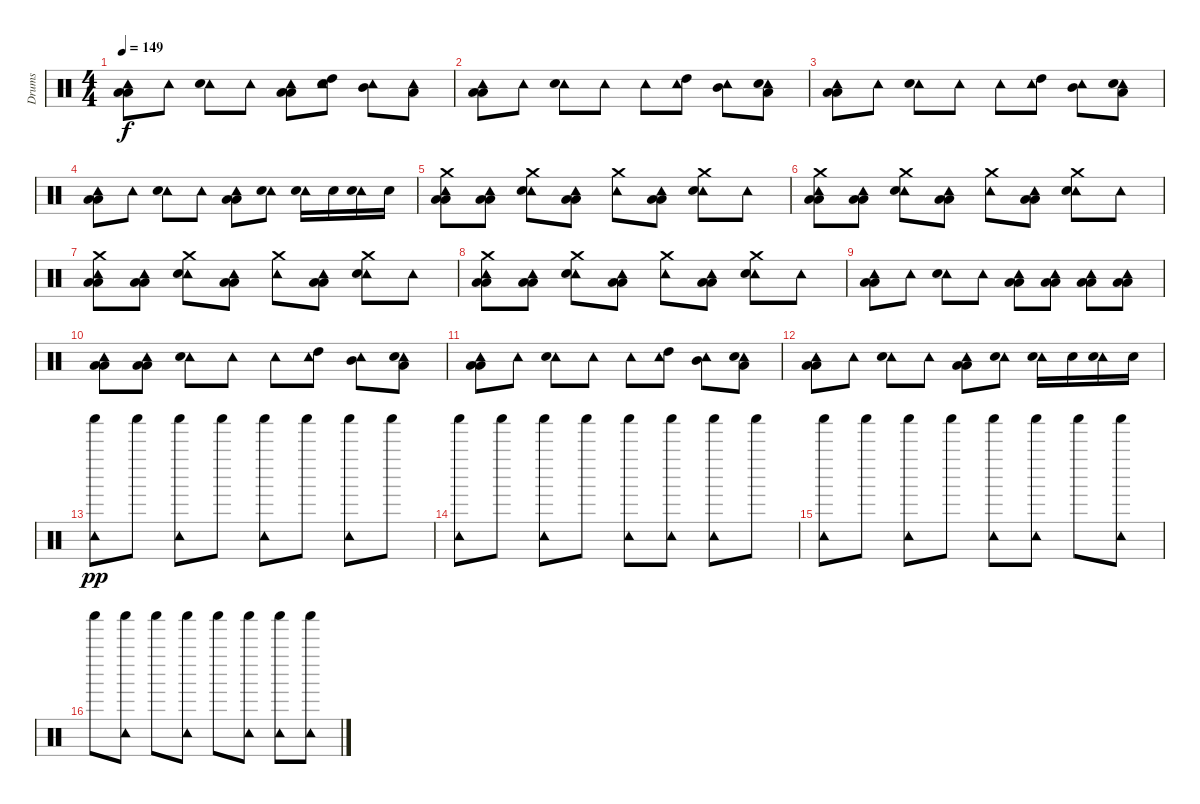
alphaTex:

\track ("Drums" "Drums") {instrument percussion}
\staff {score}
\articulation defaults
\ts (4 4)
\tempo 149
\clef neutral
\ks c
("Tambourine (hit)" "Low Floor Tom (hit)" "Low Floor Tom (hit)").8{dy f} "Tambourine (hit)".8 ("Tambourine (hit)" "Snare (hit) 2").8 "Tambourine (hit)".8 ("Tambourine (hit)" "Low Floor Tom (hit)" "Low Floor Tom (hit)").8 ("Tambourine (hit)" "Snare (hit) 2" "High Tom (hit)").8 ("Tambourine (hit)" "Mid Tom (hit)").8 ("Tambourine (hit)" "Low Tom (hit)").8 |
("Tambourine (hit)" "Low Floor Tom (hit)" "Low Floor Tom (hit)").8 "Tambourine (hit)".8 ("Tambourine (hit)" "Snare (hit) 2").8 "Tambourine (hit)".8 "Tambourine (hit)".8 ("Tambourine (hit)" "High Tom (hit)").8 ("Tambourine (hit)" "Mid Tom (hit)").8 ("Tambourine (hit)" "Snare (hit) 2" "Low Tom (hit)").8 |
("Tambourine (hit)" "Low Floor Tom (hit)" "Low Floor Tom (hit)").8 "Tambourine (hit)".8 ("Tambourine (hit)" "Snare (hit) 2").8 "Tambourine (hit)".8 "Tambourine (hit)".8 ("Tambourine (hit)" "High Tom (hit)").8 ("Tambourine (hit)" "Mid Tom (hit)").8 ("Tambourine (hit)" "Snare (hit) 2" "Low Tom (hit)").8 |
("Tambourine (hit)" "Low Floor Tom (hit)" "Low Floor Tom (hit)").8 "Tambourine (hit)".8 ("Tambourine (hit)" "Snare (hit) 2").8 "Tambourine (hit)".8 ("Tambourine (hit)" "Low Floor Tom (hit)" "Low Floor Tom (hit)").8 ("Tambourine (hit)" "Snare (hit) 2").8 ("Tambourine (hit)" "Snare (hit) 2").16 "Snare (hit) 2".16 ("Tambourine (hit)" "Snare (hit) 2").16 "Snare (hit) 2".16 |
("Crash medium (hit)" "Tambourine (hit)" "Low Floor Tom (hit)" "Low Floor Tom (hit)").8 ("Tambourine (hit)" "Low Floor Tom (hit)" "Low Floor Tom (hit)").8 ("Crash medium (hit)" "Tambourine (hit)" "Snare (hit) 2").8 ("Tambourine (hit)" "Low Floor Tom (hit)" "Low Floor Tom (hit)").8 ("Crash medium (hit)" "Tambourine (hit)").8 ("Tambourine (hit)" "Low Floor Tom (hit)" "Low Floor Tom (hit)").8 ("Crash medium (hit)" "Tambourine (hit)" "Snare (hit) 2").8 "Tambourine (hit)".8 |
("Crash medium (hit)" "Tambourine (hit)" "Low Floor Tom (hit)" "Low Floor Tom (hit)").8 ("Tambourine (hit)" "Low Floor Tom (hit)" "Low Floor Tom (hit)").8 ("Crash medium (hit)" "Tambourine (hit)" "Snare (hit) 2").8 ("Tambourine (hit)" "Low Floor Tom (hit)" "Low Floor Tom (hit)").8 ("Crash medium (hit)" "Tambourine (hit)").8 ("Tambourine (hit)" "Low Floor Tom (hit)" "Low Floor Tom (hit)").8 ("Crash medium (hit)" "Tambourine (hit)" "Snare (hit) 2").8 "Tambourine (hit)".8 |
("Crash medium (hit)" "Tambourine (hit)" "Low Floor Tom (hit)" "Low Floor Tom (hit)").8 ("Tambourine (hit)" "Low Floor Tom (hit)" "Low Floor Tom (hit)").8 ("Crash medium (hit)" "Tambourine (hit)" "Snare (hit) 2").8 ("Tambourine (hit)" "Low Floor Tom (hit)" "Low Floor Tom (hit)").8 ("Crash medium (hit)" "Tambourine (hit)").8 ("Tambourine (hit)" "Low Floor Tom (hit)" "Low Floor Tom (hit)").8 ("Crash medium (hit)" "Tambourine (hit)" "Snare (hit) 2").8 "Tambourine (hit)".8 |
("Crash medium (hit)" "Tambourine (hit)" "Low Floor Tom (hit)" "Low Floor Tom (hit)").8 ("Tambourine (hit)" "Low Floor Tom (hit)" "Low Floor Tom (hit)").8 ("Crash medium (hit)" "Tambourine (hit)" "Snare (hit) 2").8 ("Tambourine (hit)" "Low Floor Tom (hit)" "Low Floor Tom (hit)").8 ("Crash medium (hit)" "Tambourine (hit)").8 ("Tambourine (hit)" "Low Floor Tom (hit)" "Low Floor Tom (hit)").8 ("Crash medium (hit)" "Tambourine (hit)" "Snare (hit) 2").8 "Tambourine (hit)".8 |
("Tambourine (hit)" "Low Floor Tom (hit)" "Low Floor Tom (hit)").8 "Tambourine (hit)".8 ("Tambourine (hit)" "Snare (hit) 2").8 "Tambourine (hit)".8 ("Tambourine (hit)" "Low Floor Tom (hit)" "Low Floor Tom (hit)").8 ("Tambourine (hit)" "Low Floor Tom (hit)" "Low Floor Tom (hit)").8 ("Tambourine (hit)" "Low Floor Tom (hit)" "Low Floor Tom (hit)").8 ("Tambourine (hit)" "Low Floor Tom (hit)" "Low Floor Tom (hit)").8 |
("Tambourine (hit)" "Low Floor Tom (hit)" "Low Floor Tom (hit)").8 ("Tambourine (hit)" "Low Floor Tom (hit)" "Low Floor Tom (hit)").8 ("Tambourine (hit)" "Snare (hit) 2").8 "Tambourine (hit)".8 "Tambourine (hit)".8 ("Tambourine (hit)" "High Tom (hit)").8 ("Tambourine (hit)" "Mid Tom (hit)").8 ("Tambourine (hit)" "Snare (hit) 2" "Low Tom (hit)").8 |
("Tambourine (hit)" "Low Floor Tom (hit)" "Low Floor Tom (hit)").8 "Tambourine (hit)".8 ("Tambourine (hit)" "Snare (hit) 2").8 "Tambourine (hit)".8 "Tambourine (hit)".8 ("Tambourine (hit)" "High Tom (hit)").8 ("Tambourine (hit)" "Mid Tom (hit)").8 ("Tambourine (hit)" "Snare (hit) 2" "Low Tom (hit)").8 |
("Tambourine (hit)" "Low Floor Tom (hit)" "Low Floor Tom (hit)").8 "Tambourine (hit)".8 ("Tambourine (hit)" "Snare (hit) 2").8 "Tambourine (hit)".8 ("Tambourine (hit)" "Low Floor Tom (hit)" "Low Floor Tom (hit)").8 ("Tambourine (hit)" "Snare (hit) 2").8 ("Tambourine (hit)" "Snare (hit) 2").16 "Snare (hit) 2".16 ("Tambourine (hit)" "Snare (hit) 2").16 "Snare (hit) 2".16 |
("Tambourine (hit)" "Shaker (hit)").8{dy pp} "Shaker (hit)".8 ("Tambourine (hit)" "Shaker (hit)").8 "Shaker (hit)".8 ("Tambourine (hit)" "Shaker (hit)").8 "Shaker (hit)".8 ("Tambourine (hit)" "Shaker (hit)").8 "Shaker (hit)".8 |
("Tambourine (hit)" "Shaker (hit)").8 "Shaker (hit)".8 ("Tambourine (hit)" "Shaker (hit)").8 "Shaker (hit)".8 ("Tambourine (hit)" "Shaker (hit)").8 ("Tambourine (hit)" "Shaker (hit)").8 ("Tambourine (hit)" "Shaker (hit)").8 "Shaker (hit)".8 |
("Tambourine (hit)" "Shaker (hit)").8 "Shaker (hit)".8 ("Tambourine (hit)" "Shaker (hit)").8 "Shaker (hit)".8 ("Tambourine (hit)" "Shaker (hit)").8 ("Tambourine (hit)" "Shaker (hit)").8 "Shaker (hit)".8 ("Tambourine (hit)" "Shaker (hit)").8 |
"Shaker (hit)".8 ("Tambourine (hit)" "Shaker (hit)").8 "Shaker (hit)".8 ("Tambourine (hit)" "Shaker (hit)").8 "Shaker (hit)".8 ("Tambourine (hit)" "Shaker (hit)").8 ("Tambourine (hit)" "Shaker (hit)").8 ("Tambourine (hit)" "Shaker (hit)").8
